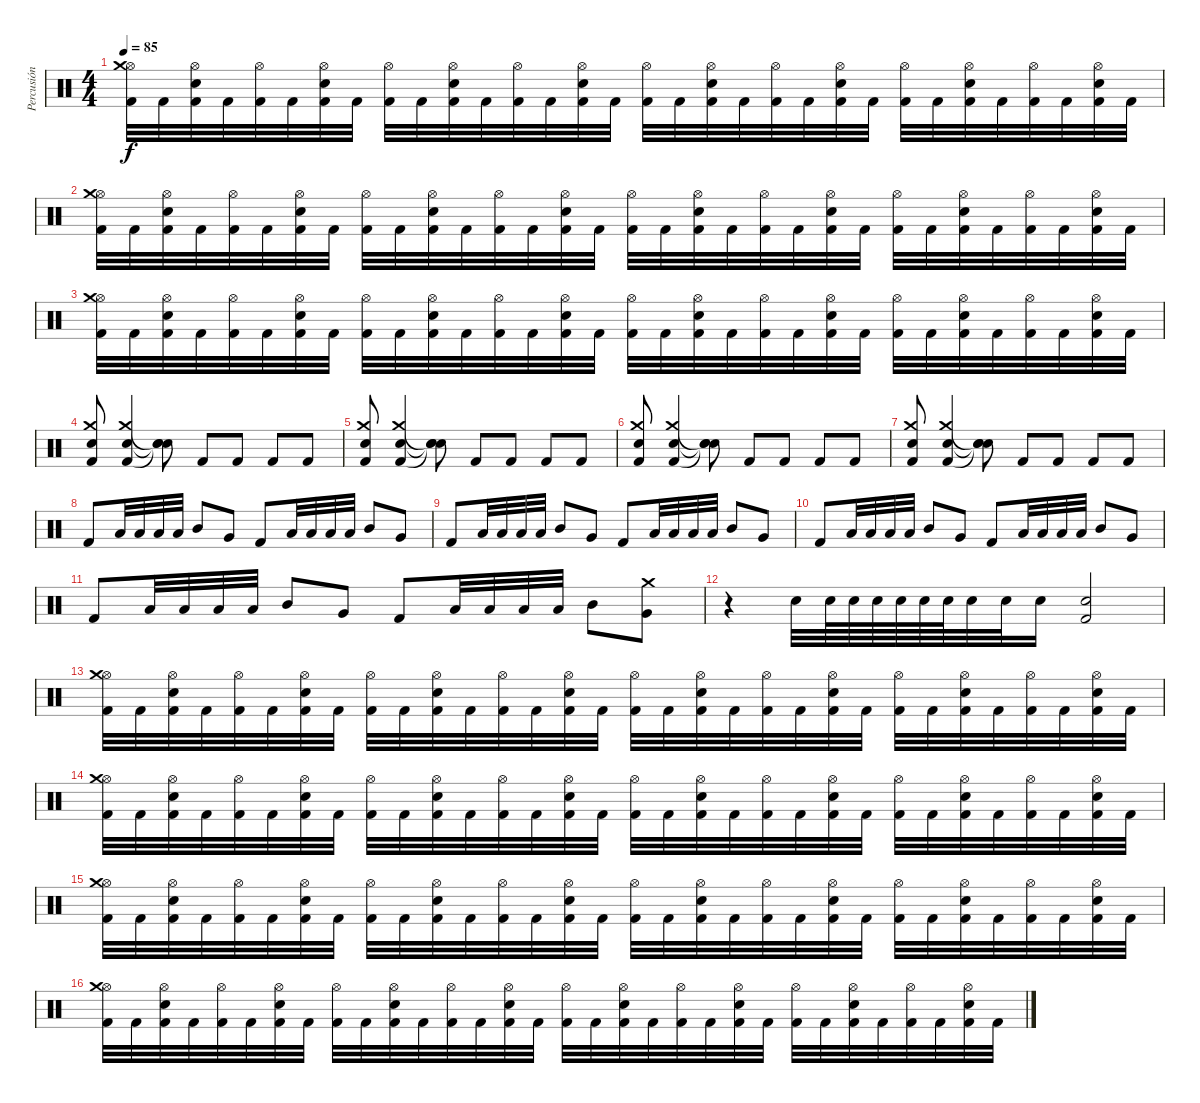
\track ("Percusión" "Percusión") {instrument percussion}
\staff {score}
\articulation defaults
\ts (4 4)
\tempo 85
\clef neutral
\ks c
("Hi-Hat (open)" "Kick (hit) 2" "Crash medium (hit)").32{dy f} "Kick (hit) 2".32 ("Hi-Hat (open)" "Electric Snare (hit)" "Kick (hit) 2").32 "Kick (hit) 2".32 ("Hi-Hat (open)" "Kick (hit) 2").32 "Kick (hit) 2".32 ("Hi-Hat (open)" "Electric Snare (hit)" "Kick (hit) 2").32 "Kick (hit) 2".32 ("Hi-Hat (open)" "Kick (hit) 2").32 "Kick (hit) 2".32 ("Hi-Hat (open)" "Electric Snare (hit)" "Kick (hit) 2").32 "Kick (hit) 2".32 ("Hi-Hat (open)" "Kick (hit) 2").32 "Kick (hit) 2".32 ("Hi-Hat (open)" "Electric Snare (hit)" "Kick (hit) 2").32 "Kick (hit) 2".32 ("Hi-Hat (open)" "Kick (hit) 2").32 "Kick (hit) 2".32 ("Hi-Hat (open)" "Electric Snare (hit)" "Kick (hit) 2").32 "Kick (hit) 2".32 ("Hi-Hat (open)" "Kick (hit) 2").32 "Kick (hit) 2".32 ("Hi-Hat (open)" "Electric Snare (hit)" "Kick (hit) 2").32 "Kick (hit) 2".32 ("Hi-Hat (open)" "Kick (hit) 2").32 "Kick (hit) 2".32 ("Hi-Hat (open)" "Electric Snare (hit)" "Kick (hit) 2").32 "Kick (hit) 2".32 ("Hi-Hat (open)" "Kick (hit) 2").32 "Kick (hit) 2".32 ("Hi-Hat (open)" "Electric Snare (hit)" "Kick (hit) 2").32 "Kick (hit) 2".32 |
("Hi-Hat (open)" "Kick (hit) 2" "Crash medium (hit)").32 "Kick (hit) 2".32 ("Hi-Hat (open)" "Electric Snare (hit)" "Kick (hit) 2").32 "Kick (hit) 2".32 ("Hi-Hat (open)" "Kick (hit) 2").32 "Kick (hit) 2".32 ("Hi-Hat (open)" "Electric Snare (hit)" "Kick (hit) 2").32 "Kick (hit) 2".32 ("Hi-Hat (open)" "Kick (hit) 2").32 "Kick (hit) 2".32 ("Hi-Hat (open)" "Electric Snare (hit)" "Kick (hit) 2").32 "Kick (hit) 2".32 ("Hi-Hat (open)" "Kick (hit) 2").32 "Kick (hit) 2".32 ("Hi-Hat (open)" "Electric Snare (hit)" "Kick (hit) 2").32 "Kick (hit) 2".32 ("Hi-Hat (open)" "Kick (hit) 2").32 "Kick (hit) 2".32 ("Hi-Hat (open)" "Electric Snare (hit)" "Kick (hit) 2").32 "Kick (hit) 2".32 ("Hi-Hat (open)" "Kick (hit) 2").32 "Kick (hit) 2".32 ("Hi-Hat (open)" "Electric Snare (hit)" "Kick (hit) 2").32 "Kick (hit) 2".32 ("Hi-Hat (open)" "Kick (hit) 2").32 "Kick (hit) 2".32 ("Hi-Hat (open)" "Electric Snare (hit)" "Kick (hit) 2").32 "Kick (hit) 2".32 ("Hi-Hat (open)" "Kick (hit) 2").32 "Kick (hit) 2".32 ("Hi-Hat (open)" "Electric Snare (hit)" "Kick (hit) 2").32 "Kick (hit) 2".32 |
("Hi-Hat (open)" "Kick (hit) 2" "Crash medium (hit)").32 "Kick (hit) 2".32 ("Hi-Hat (open)" "Electric Snare (hit)" "Kick (hit) 2").32 "Kick (hit) 2".32 ("Hi-Hat (open)" "Kick (hit) 2").32 "Kick (hit) 2".32 ("Hi-Hat (open)" "Electric Snare (hit)" "Kick (hit) 2").32 "Kick (hit) 2".32 ("Hi-Hat (open)" "Kick (hit) 2").32 "Kick (hit) 2".32 ("Hi-Hat (open)" "Electric Snare (hit)" "Kick (hit) 2").32 "Kick (hit) 2".32 ("Hi-Hat (open)" "Kick (hit) 2").32 "Kick (hit) 2".32 ("Hi-Hat (open)" "Electric Snare (hit)" "Kick (hit) 2").32 "Kick (hit) 2".32 ("Hi-Hat (open)" "Kick (hit) 2").32 "Kick (hit) 2".32 ("Hi-Hat (open)" "Electric Snare (hit)" "Kick (hit) 2").32 "Kick (hit) 2".32 ("Hi-Hat (open)" "Kick (hit) 2").32 "Kick (hit) 2".32 ("Hi-Hat (open)" "Electric Snare (hit)" "Kick (hit) 2").32 "Kick (hit) 2".32 ("Hi-Hat (open)" "Kick (hit) 2").32 "Kick (hit) 2".32 ("Hi-Hat (open)" "Electric Snare (hit)" "Kick (hit) 2").32 "Kick (hit) 2".32 ("Hi-Hat (open)" "Kick (hit) 2").32 "Kick (hit) 2".32 ("Hi-Hat (open)" "Electric Snare (hit)" "Kick (hit) 2").32 "Kick (hit) 2".32 |
("Crash medium (hit)" "Electric Snare (hit)" "Kick (hit) 2").8 ("Crash medium (hit)" "Electric Snare (hit)" "Kick (hit) 2").4 ("Snare (hit)"{t} "Snare (hit)"{t} "Snare (hit)"{t}).8 "Kick (hit) 2".8 "Kick (hit) 2".8 "Kick (hit) 2".8 "Kick (hit) 2".8 |
("Crash medium (hit)" "Electric Snare (hit)" "Kick (hit) 2").8 ("Crash medium (hit)" "Electric Snare (hit)" "Kick (hit) 2").4 ("Snare (hit)"{t} "Snare (hit)"{t} "Snare (hit)"{t}).8 "Kick (hit) 2".8 "Kick (hit) 2".8 "Kick (hit) 2".8 "Kick (hit) 2".8 |
("Crash medium (hit)" "Electric Snare (hit)" "Kick (hit) 2").8 ("Crash medium (hit)" "Electric Snare (hit)" "Kick (hit) 2").4 ("Snare (hit)"{t} "Snare (hit)"{t} "Snare (hit)"{t}).8 "Kick (hit) 2".8 "Kick (hit) 2".8 "Kick (hit) 2".8 "Kick (hit) 2".8 |
("Crash medium (hit)" "Electric Snare (hit)" "Kick (hit) 2").8 ("Crash medium (hit)" "Electric Snare (hit)" "Kick (hit) 2").4 ("Snare (hit)"{t} "Snare (hit)"{t} "Snare (hit)"{t}).8 "Kick (hit) 2".8 "Kick (hit) 2".8 "Kick (hit) 2".8 "Kick (hit) 2".8 |
"Kick (hit) 2".8 "Low Tom (hit)".32 "Low Tom (hit)".32 "Low Tom (hit)".32 "Low Tom (hit)".32 "Mid Tom (hit)".8 "Very Low Tom (hit)".8 "Kick (hit) 2".8 "Low Tom (hit)".32 "Low Tom (hit)".32 "Low Tom (hit)".32 "Low Tom (hit)".32 "Mid Tom (hit)".8 "Very Low Tom (hit)".8 |
"Kick (hit) 2".8 "Low Tom (hit)".32 "Low Tom (hit)".32 "Low Tom (hit)".32 "Low Tom (hit)".32 "Mid Tom (hit)".8 "Very Low Tom (hit)".8 "Kick (hit) 2".8 "Low Tom (hit)".32 "Low Tom (hit)".32 "Low Tom (hit)".32 "Low Tom (hit)".32 "Mid Tom (hit)".8 "Very Low Tom (hit)".8 |
"Kick (hit) 2".8 "Low Tom (hit)".32 "Low Tom (hit)".32 "Low Tom (hit)".32 "Low Tom (hit)".32 "Mid Tom (hit)".8 "Very Low Tom (hit)".8 "Kick (hit) 2".8 "Low Tom (hit)".32 "Low Tom (hit)".32 "Low Tom (hit)".32 "Low Tom (hit)".32 "Mid Tom (hit)".8 "Very Low Tom (hit)".8 |
"Kick (hit) 2".8 "Low Tom (hit)".32 "Low Tom (hit)".32 "Low Tom (hit)".32 "Low Tom (hit)".32 "Mid Tom (hit)".8 "Very Low Tom (hit)".8 "Kick (hit) 2".8 "Low Tom (hit)".32 "Low Tom (hit)".32 "Low Tom (hit)".32 "Low Tom (hit)".32 "Mid Tom (hit)".8 ("Crash medium (hit)" "Very Low Tom (hit)").8 |
r.4 "Electric Snare (hit)".32 "Electric Snare (hit)".64 "Electric Snare (hit)".64 "Electric Snare (hit)".64 "Electric Snare (hit)".64 "Electric Snare (hit)".64 "Electric Snare (hit)".64 "Electric Snare (hit)".32 "Electric Snare (hit)".32 "Electric Snare (hit)".16 ("Electric Snare (hit)" "Kick (hit) 2").2 |
("Hi-Hat (open)" "Kick (hit) 2" "Crash medium (hit)").32 "Kick (hit) 2".32 ("Hi-Hat (open)" "Electric Snare (hit)" "Kick (hit) 2").32 "Kick (hit) 2".32 ("Hi-Hat (open)" "Kick (hit) 2").32 "Kick (hit) 2".32 ("Hi-Hat (open)" "Electric Snare (hit)" "Kick (hit) 2").32 "Kick (hit) 2".32 ("Hi-Hat (open)" "Kick (hit) 2").32 "Kick (hit) 2".32 ("Hi-Hat (open)" "Electric Snare (hit)" "Kick (hit) 2").32 "Kick (hit) 2".32 ("Hi-Hat (open)" "Kick (hit) 2").32 "Kick (hit) 2".32 ("Hi-Hat (open)" "Electric Snare (hit)" "Kick (hit) 2").32 "Kick (hit) 2".32 ("Hi-Hat (open)" "Kick (hit) 2").32 "Kick (hit) 2".32 ("Hi-Hat (open)" "Electric Snare (hit)" "Kick (hit) 2").32 "Kick (hit) 2".32 ("Hi-Hat (open)" "Kick (hit) 2").32 "Kick (hit) 2".32 ("Hi-Hat (open)" "Electric Snare (hit)" "Kick (hit) 2").32 "Kick (hit) 2".32 ("Hi-Hat (open)" "Kick (hit) 2").32 "Kick (hit) 2".32 ("Hi-Hat (open)" "Electric Snare (hit)" "Kick (hit) 2").32 "Kick (hit) 2".32 ("Hi-Hat (open)" "Kick (hit) 2").32 "Kick (hit) 2".32 ("Hi-Hat (open)" "Electric Snare (hit)" "Kick (hit) 2").32 "Kick (hit) 2".32 |
("Hi-Hat (open)" "Kick (hit) 2" "Crash medium (hit)").32 "Kick (hit) 2".32 ("Hi-Hat (open)" "Electric Snare (hit)" "Kick (hit) 2").32 "Kick (hit) 2".32 ("Hi-Hat (open)" "Kick (hit) 2").32 "Kick (hit) 2".32 ("Hi-Hat (open)" "Electric Snare (hit)" "Kick (hit) 2").32 "Kick (hit) 2".32 ("Hi-Hat (open)" "Kick (hit) 2").32 "Kick (hit) 2".32 ("Hi-Hat (open)" "Electric Snare (hit)" "Kick (hit) 2").32 "Kick (hit) 2".32 ("Hi-Hat (open)" "Kick (hit) 2").32 "Kick (hit) 2".32 ("Hi-Hat (open)" "Electric Snare (hit)" "Kick (hit) 2").32 "Kick (hit) 2".32 ("Hi-Hat (open)" "Kick (hit) 2").32 "Kick (hit) 2".32 ("Hi-Hat (open)" "Electric Snare (hit)" "Kick (hit) 2").32 "Kick (hit) 2".32 ("Hi-Hat (open)" "Kick (hit) 2").32 "Kick (hit) 2".32 ("Hi-Hat (open)" "Electric Snare (hit)" "Kick (hit) 2").32 "Kick (hit) 2".32 ("Hi-Hat (open)" "Kick (hit) 2").32 "Kick (hit) 2".32 ("Hi-Hat (open)" "Electric Snare (hit)" "Kick (hit) 2").32 "Kick (hit) 2".32 ("Hi-Hat (open)" "Kick (hit) 2").32 "Kick (hit) 2".32 ("Hi-Hat (open)" "Electric Snare (hit)" "Kick (hit) 2").32 "Kick (hit) 2".32 |
("Hi-Hat (open)" "Kick (hit) 2" "Crash medium (hit)").32 "Kick (hit) 2".32 ("Hi-Hat (open)" "Electric Snare (hit)" "Kick (hit) 2").32 "Kick (hit) 2".32 ("Hi-Hat (open)" "Kick (hit) 2").32 "Kick (hit) 2".32 ("Hi-Hat (open)" "Electric Snare (hit)" "Kick (hit) 2").32 "Kick (hit) 2".32 ("Hi-Hat (open)" "Kick (hit) 2").32 "Kick (hit) 2".32 ("Hi-Hat (open)" "Electric Snare (hit)" "Kick (hit) 2").32 "Kick (hit) 2".32 ("Hi-Hat (open)" "Kick (hit) 2").32 "Kick (hit) 2".32 ("Hi-Hat (open)" "Electric Snare (hit)" "Kick (hit) 2").32 "Kick (hit) 2".32 ("Hi-Hat (open)" "Kick (hit) 2").32 "Kick (hit) 2".32 ("Hi-Hat (open)" "Electric Snare (hit)" "Kick (hit) 2").32 "Kick (hit) 2".32 ("Hi-Hat (open)" "Kick (hit) 2").32 "Kick (hit) 2".32 ("Hi-Hat (open)" "Electric Snare (hit)" "Kick (hit) 2").32 "Kick (hit) 2".32 ("Hi-Hat (open)" "Kick (hit) 2").32 "Kick (hit) 2".32 ("Hi-Hat (open)" "Electric Snare (hit)" "Kick (hit) 2").32 "Kick (hit) 2".32 ("Hi-Hat (open)" "Kick (hit) 2").32 "Kick (hit) 2".32 ("Hi-Hat (open)" "Electric Snare (hit)" "Kick (hit) 2").32 "Kick (hit) 2".32 |
("Hi-Hat (open)" "Kick (hit) 2" "Crash medium (hit)").32 "Kick (hit) 2".32 ("Hi-Hat (open)" "Electric Snare (hit)" "Kick (hit) 2").32 "Kick (hit) 2".32 ("Hi-Hat (open)" "Kick (hit) 2").32 "Kick (hit) 2".32 ("Hi-Hat (open)" "Electric Snare (hit)" "Kick (hit) 2").32 "Kick (hit) 2".32 ("Hi-Hat (open)" "Kick (hit) 2").32 "Kick (hit) 2".32 ("Hi-Hat (open)" "Electric Snare (hit)" "Kick (hit) 2").32 "Kick (hit) 2".32 ("Hi-Hat (open)" "Kick (hit) 2").32 "Kick (hit) 2".32 ("Hi-Hat (open)" "Electric Snare (hit)" "Kick (hit) 2").32 "Kick (hit) 2".32 ("Hi-Hat (open)" "Kick (hit) 2").32 "Kick (hit) 2".32 ("Hi-Hat (open)" "Electric Snare (hit)" "Kick (hit) 2").32 "Kick (hit) 2".32 ("Hi-Hat (open)" "Kick (hit) 2").32 "Kick (hit) 2".32 ("Hi-Hat (open)" "Electric Snare (hit)" "Kick (hit) 2").32 "Kick (hit) 2".32 ("Hi-Hat (open)" "Kick (hit) 2").32 "Kick (hit) 2".32 ("Hi-Hat (open)" "Electric Snare (hit)" "Kick (hit) 2").32 "Kick (hit) 2".32 ("Hi-Hat (open)" "Kick (hit) 2").32 "Kick (hit) 2".32 ("Hi-Hat (open)" "Electric Snare (hit)" "Kick (hit) 2").32 "Kick (hit) 2".32
